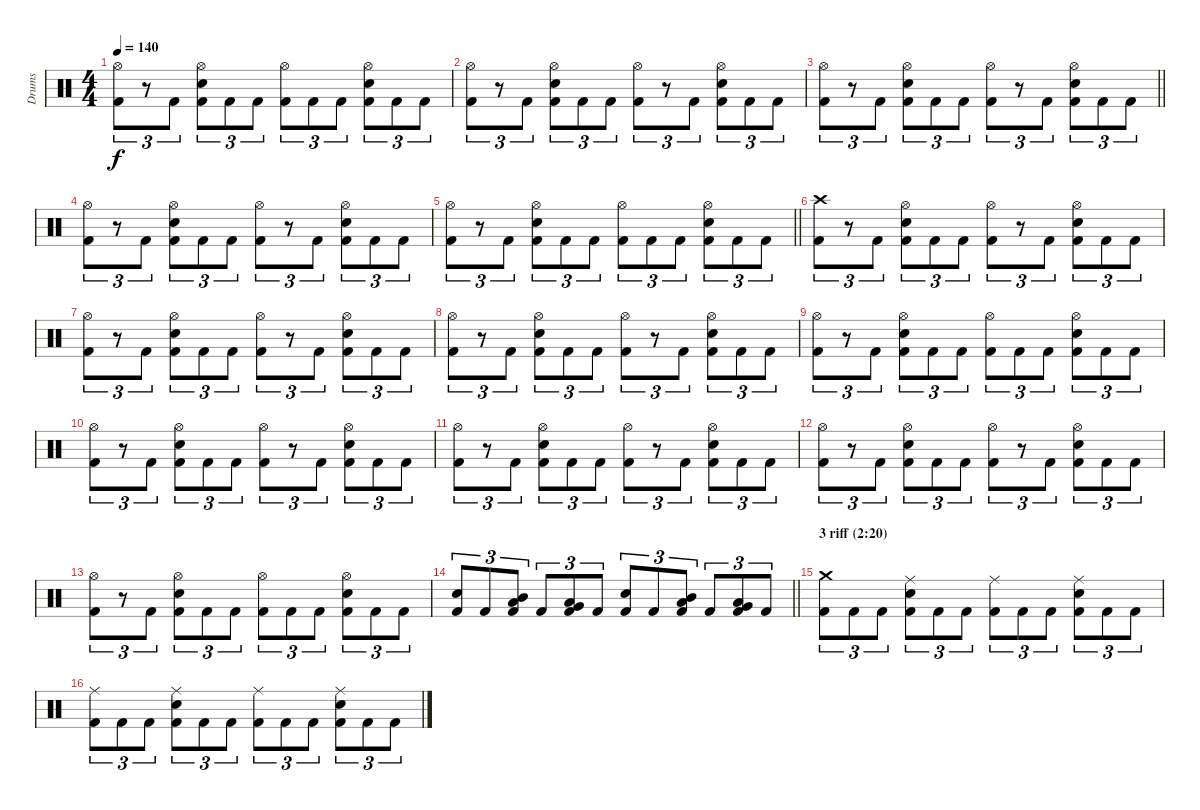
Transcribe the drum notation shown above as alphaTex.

\track ("Drums" "Drums") {instrument percussion}
\staff {score}
\articulation defaults
\ts (4 4)
\tempo 140
\clef neutral
\ks c
("Hi-Hat (open)" "Kick (hit) 2").8{tu (3 2) dy f} r.8{tu (3 2)} "Kick (hit) 2".8{tu (3 2)} ("Hi-Hat (open)" "Snare (hit) 2" "Kick (hit) 2").8{tu (3 2)} "Kick (hit) 2".8{tu (3 2)} "Kick (hit) 2".8{tu (3 2)} ("Hi-Hat (open)" "Kick (hit) 2").8{tu (3 2)} "Kick (hit) 2".8{tu (3 2)} "Kick (hit) 2".8{tu (3 2)} ("Hi-Hat (open)" "Snare (hit) 2" "Kick (hit) 2").8{tu (3 2)} "Kick (hit) 2".8{tu (3 2)} "Kick (hit) 2".8{tu (3 2)} |
("Hi-Hat (open)" "Kick (hit) 2").8{tu (3 2)} r.8{tu (3 2)} "Kick (hit) 2".8{tu (3 2)} ("Hi-Hat (open)" "Snare (hit) 2" "Kick (hit) 2").8{tu (3 2)} "Kick (hit) 2".8{tu (3 2)} "Kick (hit) 2".8{tu (3 2)} ("Hi-Hat (open)" "Kick (hit) 2").8{tu (3 2)} r.8{tu (3 2)} "Kick (hit) 2".8{tu (3 2)} ("Hi-Hat (open)" "Snare (hit) 2" "Kick (hit) 2").8{tu (3 2)} "Kick (hit) 2".8{tu (3 2)} "Kick (hit) 2".8{tu (3 2)} |
\barLineRight lightlight
("Hi-Hat (open)" "Kick (hit) 2").8{tu (3 2)} r.8{tu (3 2)} "Kick (hit) 2".8{tu (3 2)} ("Hi-Hat (open)" "Snare (hit) 2" "Kick (hit) 2").8{tu (3 2)} "Kick (hit) 2".8{tu (3 2)} "Kick (hit) 2".8{tu (3 2)} ("Hi-Hat (open)" "Kick (hit) 2").8{tu (3 2)} r.8{tu (3 2)} "Kick (hit) 2".8{tu (3 2)} ("Hi-Hat (open)" "Snare (hit) 2" "Kick (hit) 2").8{tu (3 2)} "Kick (hit) 2".8{tu (3 2)} "Kick (hit) 2".8{tu (3 2)} |
("Hi-Hat (open)" "Kick (hit) 2").8{tu (3 2)} r.8{tu (3 2)} "Kick (hit) 2".8{tu (3 2)} ("Hi-Hat (open)" "Snare (hit) 2" "Kick (hit) 2").8{tu (3 2)} "Kick (hit) 2".8{tu (3 2)} "Kick (hit) 2".8{tu (3 2)} ("Hi-Hat (open)" "Kick (hit) 2").8{tu (3 2)} r.8{tu (3 2)} "Kick (hit) 2".8{tu (3 2)} ("Hi-Hat (open)" "Snare (hit) 2" "Kick (hit) 2").8{tu (3 2)} "Kick (hit) 2".8{tu (3 2)} "Kick (hit) 2".8{tu (3 2)} |
\barLineRight lightlight
("Hi-Hat (open)" "Kick (hit) 2").8{tu (3 2)} r.8{tu (3 2)} "Kick (hit) 2".8{tu (3 2)} ("Hi-Hat (open)" "Snare (hit) 2" "Kick (hit) 2").8{tu (3 2)} "Kick (hit) 2".8{tu (3 2)} "Kick (hit) 2".8{tu (3 2)} ("Hi-Hat (open)" "Kick (hit) 2").8{tu (3 2)} "Kick (hit) 2".8{tu (3 2)} "Kick (hit) 2".8{tu (3 2)} ("Hi-Hat (open)" "Snare (hit) 2" "Kick (hit) 2").8{tu (3 2)} "Kick (hit) 2".8{tu (3 2)} "Kick (hit) 2".8{tu (3 2)} |
\section ("" "")
("Crash high (hit)" "Kick (hit) 2").8{tu (3 2)} r.8{tu (3 2)} "Kick (hit) 2".8{tu (3 2)} ("Hi-Hat (open)" "Snare (hit) 2" "Kick (hit) 2").8{tu (3 2)} "Kick (hit) 2".8{tu (3 2)} "Kick (hit) 2".8{tu (3 2)} ("Hi-Hat (open)" "Kick (hit) 2").8{tu (3 2)} r.8{tu (3 2)} "Kick (hit) 2".8{tu (3 2)} ("Hi-Hat (open)" "Snare (hit) 2" "Kick (hit) 2").8{tu (3 2)} "Kick (hit) 2".8{tu (3 2)} "Kick (hit) 2".8{tu (3 2)} |
("Hi-Hat (open)" "Kick (hit) 2").8{tu (3 2)} r.8{tu (3 2)} "Kick (hit) 2".8{tu (3 2)} ("Hi-Hat (open)" "Snare (hit) 2" "Kick (hit) 2").8{tu (3 2)} "Kick (hit) 2".8{tu (3 2)} "Kick (hit) 2".8{tu (3 2)} ("Hi-Hat (open)" "Kick (hit) 2").8{tu (3 2)} r.8{tu (3 2)} "Kick (hit) 2".8{tu (3 2)} ("Hi-Hat (open)" "Snare (hit) 2" "Kick (hit) 2").8{tu (3 2)} "Kick (hit) 2".8{tu (3 2)} "Kick (hit) 2".8{tu (3 2)} |
("Hi-Hat (open)" "Kick (hit) 2").8{tu (3 2)} r.8{tu (3 2)} "Kick (hit) 2".8{tu (3 2)} ("Hi-Hat (open)" "Snare (hit) 2" "Kick (hit) 2").8{tu (3 2)} "Kick (hit) 2".8{tu (3 2)} "Kick (hit) 2".8{tu (3 2)} ("Hi-Hat (open)" "Kick (hit) 2").8{tu (3 2)} r.8{tu (3 2)} "Kick (hit) 2".8{tu (3 2)} ("Hi-Hat (open)" "Snare (hit) 2" "Kick (hit) 2").8{tu (3 2)} "Kick (hit) 2".8{tu (3 2)} "Kick (hit) 2".8{tu (3 2)} |
("Hi-Hat (open)" "Kick (hit) 2").8{tu (3 2)} r.8{tu (3 2)} "Kick (hit) 2".8{tu (3 2)} ("Hi-Hat (open)" "Snare (hit) 2" "Kick (hit) 2").8{tu (3 2)} "Kick (hit) 2".8{tu (3 2)} "Kick (hit) 2".8{tu (3 2)} ("Hi-Hat (open)" "Kick (hit) 2").8{tu (3 2)} "Kick (hit) 2".8{tu (3 2)} "Kick (hit) 2".8{tu (3 2)} ("Hi-Hat (open)" "Snare (hit) 2" "Kick (hit) 2").8{tu (3 2)} "Kick (hit) 2".8{tu (3 2)} "Kick (hit) 2".8{tu (3 2)} |
("Hi-Hat (open)" "Kick (hit) 2").8{tu (3 2)} r.8{tu (3 2)} "Kick (hit) 2".8{tu (3 2)} ("Hi-Hat (open)" "Snare (hit) 2" "Kick (hit) 2").8{tu (3 2)} "Kick (hit) 2".8{tu (3 2)} "Kick (hit) 2".8{tu (3 2)} ("Hi-Hat (open)" "Kick (hit) 2").8{tu (3 2)} r.8{tu (3 2)} "Kick (hit) 2".8{tu (3 2)} ("Hi-Hat (open)" "Snare (hit) 2" "Kick (hit) 2").8{tu (3 2)} "Kick (hit) 2".8{tu (3 2)} "Kick (hit) 2".8{tu (3 2)} |
("Hi-Hat (open)" "Kick (hit) 2").8{tu (3 2)} r.8{tu (3 2)} "Kick (hit) 2".8{tu (3 2)} ("Hi-Hat (open)" "Snare (hit) 2" "Kick (hit) 2").8{tu (3 2)} "Kick (hit) 2".8{tu (3 2)} "Kick (hit) 2".8{tu (3 2)} ("Hi-Hat (open)" "Kick (hit) 2").8{tu (3 2)} r.8{tu (3 2)} "Kick (hit) 2".8{tu (3 2)} ("Hi-Hat (open)" "Snare (hit) 2" "Kick (hit) 2").8{tu (3 2)} "Kick (hit) 2".8{tu (3 2)} "Kick (hit) 2".8{tu (3 2)} |
("Hi-Hat (open)" "Kick (hit) 2").8{tu (3 2)} r.8{tu (3 2)} "Kick (hit) 2".8{tu (3 2)} ("Hi-Hat (open)" "Snare (hit) 2" "Kick (hit) 2").8{tu (3 2)} "Kick (hit) 2".8{tu (3 2)} "Kick (hit) 2".8{tu (3 2)} ("Hi-Hat (open)" "Kick (hit) 2").8{tu (3 2)} r.8{tu (3 2)} "Kick (hit) 2".8{tu (3 2)} ("Hi-Hat (open)" "Snare (hit) 2" "Kick (hit) 2").8{tu (3 2)} "Kick (hit) 2".8{tu (3 2)} "Kick (hit) 2".8{tu (3 2)} |
("Hi-Hat (open)" "Kick (hit) 2").8{tu (3 2)} r.8{tu (3 2)} "Kick (hit) 2".8{tu (3 2)} ("Hi-Hat (open)" "Snare (hit) 2" "Kick (hit) 2").8{tu (3 2)} "Kick (hit) 2".8{tu (3 2)} "Kick (hit) 2".8{tu (3 2)} ("Hi-Hat (open)" "Kick (hit) 2").8{tu (3 2)} "Kick (hit) 2".8{tu (3 2)} "Kick (hit) 2".8{tu (3 2)} ("Hi-Hat (open)" "Snare (hit) 2" "Kick (hit) 2").8{tu (3 2)} "Kick (hit) 2".8{tu (3 2)} "Kick (hit) 2".8{tu (3 2)} |
\barLineRight lightlight
("Snare (hit) 2" "Kick (hit) 2").8{tu (3 2)} "Kick (hit) 2".8{tu (3 2)} ("Mid Tom (hit)" "Low Tom (hit)" "Kick (hit) 2").8{tu (3 2)} "Kick (hit) 2".8{tu (3 2)} ("Low Tom (hit)" "Very Low Tom (hit)" "Kick (hit) 2").8{tu (3 2)} "Kick (hit) 2".8{tu (3 2)} ("Snare (hit) 2" "Kick (hit) 2").8{tu (3 2)} "Kick (hit) 2".8{tu (3 2)} ("Mid Tom (hit)" "Low Tom (hit)" "Kick (hit) 2").8{tu (3 2)} "Kick (hit) 2".8{tu (3 2)} ("Low Tom (hit)" "Very Low Tom (hit)" "Kick (hit) 2").8{tu (3 2)} "Kick (hit) 2".8{tu (3 2)} |
\section ("" "3 riff (2:20)")
("Crash medium (hit)" "Kick (hit) 2").8{tu (3 2)} "Kick (hit) 2".8{tu (3 2)} "Kick (hit) 2".8{tu (3 2)} ("Ride (middle)" "Snare (hit) 2" "Kick (hit) 2").8{tu (3 2)} "Kick (hit) 2".8{tu (3 2)} "Kick (hit) 2".8{tu (3 2)} ("Ride (middle)" "Kick (hit) 2").8{tu (3 2)} "Kick (hit) 2".8{tu (3 2)} "Kick (hit) 2".8{tu (3 2)} ("Ride (middle)" "Snare (hit) 2" "Kick (hit) 2").8{tu (3 2)} "Kick (hit) 2".8{tu (3 2)} "Kick (hit) 2".8{tu (3 2)} |
("Ride (middle)" "Kick (hit) 2").8{tu (3 2)} "Kick (hit) 2".8{tu (3 2)} "Kick (hit) 2".8{tu (3 2)} ("Ride (middle)" "Snare (hit) 2" "Kick (hit) 2").8{tu (3 2)} "Kick (hit) 2".8{tu (3 2)} "Kick (hit) 2".8{tu (3 2)} ("Ride (middle)" "Kick (hit) 2").8{tu (3 2)} "Kick (hit) 2".8{tu (3 2)} "Kick (hit) 2".8{tu (3 2)} ("Ride (middle)" "Snare (hit) 2" "Kick (hit) 2").8{tu (3 2)} "Kick (hit) 2".8{tu (3 2)} "Kick (hit) 2".8{tu (3 2)}
